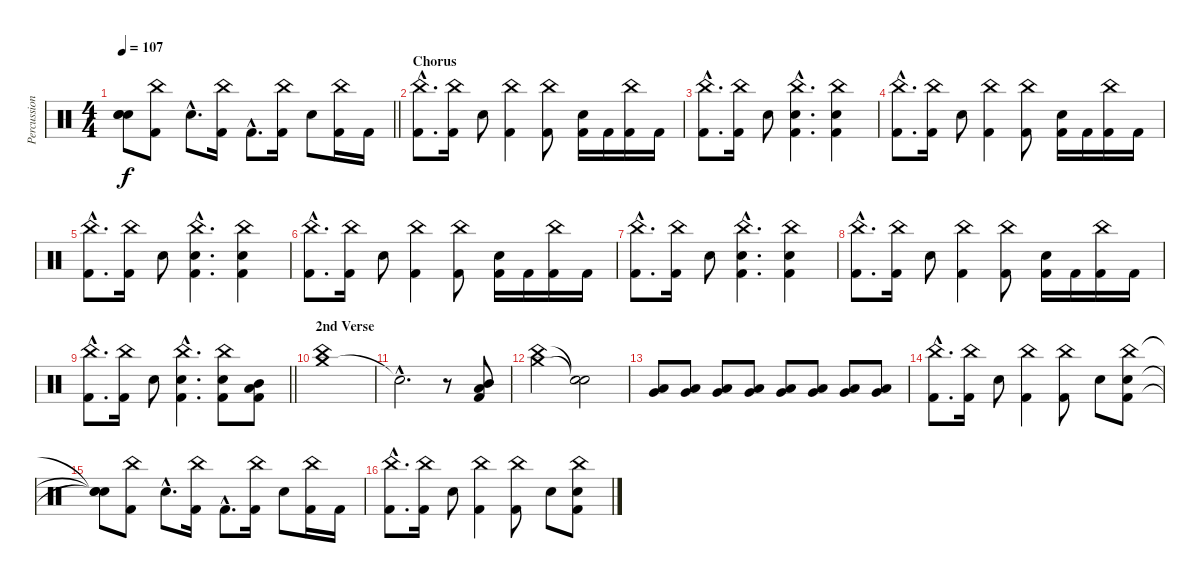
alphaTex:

\track ("Percussion" "Percussion") {instrument percussion}
\staff {score}
\articulation defaults
\ts (4 4)
\tempo 107
\clef neutral
\barLineRight lightlight
\ks c
("Snare (hit)"{t} "Snare (hit)"{t} "Snare (hit)"{t}).8{dy f} ("China (hit)" "Kick (hit) 2").8 "Electric Snare (hit)"{hac}.8{d} ("China (hit)" "Kick (hit) 2").16 "Kick (hit) 2"{hac}.8{d} ("China (hit)" "Kick (hit) 2").16 "Electric Snare (hit)".8 ("China (hit)" "Kick (hit) 2").16 "Kick (hit) 2".16 |
\section ("" "Chorus")
("China (hit)"{hac} "Kick (hit) 2"{hac}).8{d} ("China (hit)" "Kick (hit) 2").16 "Electric Snare (hit)".8 ("China (hit)" "Kick (hit) 2").4 ("China (hit)" "Kick (hit) 2").8 ("Electric Snare (hit)" "Kick (hit) 2").16 "Kick (hit) 2".16 ("China (hit)" "Kick (hit) 2").16 "Kick (hit) 2".16 |
("China (hit)"{hac} "Kick (hit) 2"{hac}).8{d} ("China (hit)" "Kick (hit) 2").16 "Electric Snare (hit)".8 ("China (hit)"{hac} "Electric Snare (hit)"{hac} "Kick (hit) 2"{hac}).4{d} ("China (hit)" "Electric Snare (hit)" "Kick (hit) 2").4 |
("China (hit)"{hac} "Kick (hit) 2"{hac}).8{d} ("China (hit)" "Kick (hit) 2").16 "Electric Snare (hit)".8 ("China (hit)" "Kick (hit) 2").4 ("China (hit)" "Kick (hit) 2").8 ("Electric Snare (hit)" "Kick (hit) 2").16 "Kick (hit) 2".16 ("China (hit)" "Kick (hit) 2").16 "Kick (hit) 2".16 |
("China (hit)"{hac} "Kick (hit) 2"{hac}).8{d} ("China (hit)" "Kick (hit) 2").16 "Electric Snare (hit)".8 ("China (hit)"{hac} "Electric Snare (hit)"{hac} "Kick (hit) 2"{hac}).4{d} ("China (hit)" "Electric Snare (hit)" "Kick (hit) 2").4 |
("China (hit)"{hac} "Kick (hit) 2"{hac}).8{d} ("China (hit)" "Kick (hit) 2").16 "Electric Snare (hit)".8 ("China (hit)" "Kick (hit) 2").4 ("China (hit)" "Kick (hit) 2").8 ("Electric Snare (hit)" "Kick (hit) 2").16 "Kick (hit) 2".16 ("China (hit)" "Kick (hit) 2").16 "Kick (hit) 2".16 |
("China (hit)"{hac} "Kick (hit) 2"{hac}).8{d} ("China (hit)" "Kick (hit) 2").16 "Electric Snare (hit)".8 ("China (hit)"{hac} "Electric Snare (hit)"{hac} "Kick (hit) 2"{hac}).4{d} ("China (hit)" "Electric Snare (hit)" "Kick (hit) 2").4 |
("China (hit)"{hac} "Kick (hit) 2"{hac}).8{d} ("China (hit)" "Kick (hit) 2").16 "Electric Snare (hit)".8 ("China (hit)" "Kick (hit) 2").4 ("China (hit)" "Kick (hit) 2").8 ("Electric Snare (hit)" "Kick (hit) 2").16 "Kick (hit) 2".16 ("China (hit)" "Kick (hit) 2").16 "Kick (hit) 2".16 |
\barLineRight lightlight
("China (hit)"{hac} "Kick (hit) 2"{hac}).8{d} ("China (hit)" "Kick (hit) 2").16 "Electric Snare (hit)".8 ("China (hit)"{hac} "Electric Snare (hit)"{hac} "Kick (hit) 2"{hac}).4{d} ("China (hit)" "Electric Snare (hit)" "Kick (hit) 2").8 ("Mid Tom (hit)" "Low Tom (hit)" "Kick (hit) 2").8 |
\section ("" "2nd Verse")
("Crash medium (hit)" "China (hit)").1 |
"Snare (hit)"{hac t}.2{d} r.8 ("Mid Tom (hit)" "Low Tom (hit)" "Kick (hit) 2").8 |
("Crash medium (hit)" "China (hit)").2 ("Snare (hit)"{t} "Snare (hit)"{t}).2{volume 0} |
("Low Tom (hit)" "Very Low Tom (hit)").8{volume 13} ("Low Tom (hit)" "Very Low Tom (hit)").8 ("Low Tom (hit)" "Very Low Tom (hit)").8 ("Low Tom (hit)" "Very Low Tom (hit)").8 ("Low Tom (hit)" "Very Low Tom (hit)").8 ("Low Tom (hit)" "Very Low Tom (hit)").8 ("Low Tom (hit)" "Very Low Tom (hit)").8 ("Low Tom (hit)" "Very Low Tom (hit)").8 |
("China (hit)"{hac} "Kick (hit) 2"{hac}).8{d} ("China (hit)" "Kick (hit) 2").16 "Electric Snare (hit)".8 ("China (hit)" "Kick (hit) 2").4 ("China (hit)" "Kick (hit) 2").8 "Electric Snare (hit)".8 ("China (hit)" "Electric Snare (hit)" "Kick (hit) 2").8 |
("Snare (hit)"{t} "Snare (hit)"{t} "Snare (hit)"{t}).8 ("China (hit)" "Kick (hit) 2").8 "Electric Snare (hit)"{hac}.8{d} ("China (hit)" "Kick (hit) 2").16 "Kick (hit) 2"{hac}.8{d} ("China (hit)" "Kick (hit) 2").16 "Electric Snare (hit)".8 ("China (hit)" "Kick (hit) 2").16 "Kick (hit) 2".16 |
("China (hit)"{hac} "Kick (hit) 2"{hac}).8{d} ("China (hit)" "Kick (hit) 2").16 "Electric Snare (hit)".8 ("China (hit)" "Kick (hit) 2").4 ("China (hit)" "Kick (hit) 2").8 "Electric Snare (hit)".8 ("China (hit)" "Electric Snare (hit)" "Kick (hit) 2").8
